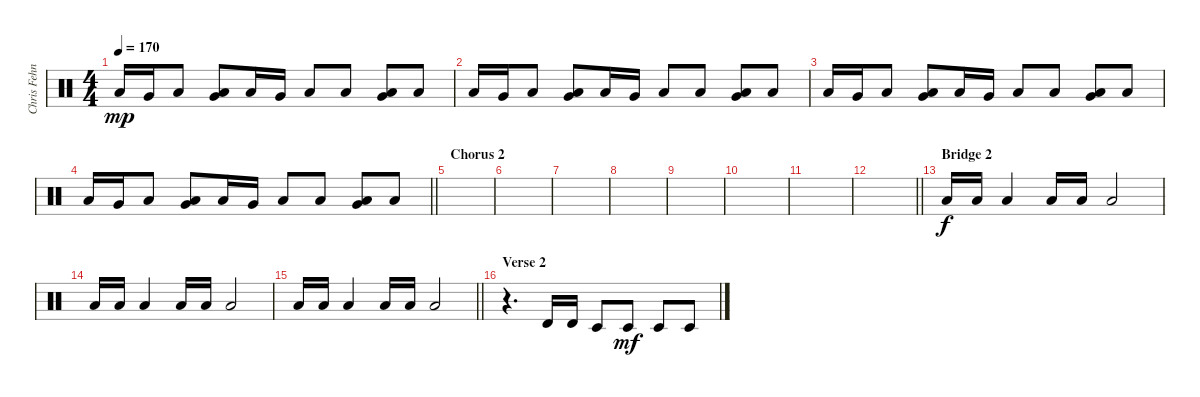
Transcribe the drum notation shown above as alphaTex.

\track ("Chris Fehn" "Chris Fehn") {instrument percussion}
\staff {score}
\articulation defaults
\ts (4 4)
\tempo 170
\clef neutral
\ks c "Low Floor Tom (hit)".16{dy mp} "Very Low Tom (hit)".16 "Low Floor Tom (hit)".8
("Very Low Tom (hit)" "Low Floor Tom (hit)").8 "Low Floor Tom (hit)".16 "Very Low Tom (hit)".16 "Low Floor Tom (hit)".8 "Low Floor Tom (hit)".8 ("Very Low Tom (hit)" "Low Floor Tom (hit)").8 "Low Floor Tom (hit)".8 |
"Low Floor Tom (hit)".16 "Very Low Tom (hit)".16 "Low Floor Tom (hit)".8 ("Very Low Tom (hit)" "Low Floor Tom (hit)").8 "Low Floor Tom (hit)".16 "Very Low Tom (hit)".16 "Low Floor Tom (hit)".8 "Low Floor Tom (hit)".8 ("Very Low Tom (hit)" "Low Floor Tom (hit)").8 "Low Floor Tom (hit)".8 |
"Low Floor Tom (hit)".16 "Very Low Tom (hit)".16 "Low Floor Tom (hit)".8 ("Very Low Tom (hit)" "Low Floor Tom (hit)").8 "Low Floor Tom (hit)".16 "Very Low Tom (hit)".16 "Low Floor Tom (hit)".8 "Low Floor Tom (hit)".8 ("Very Low Tom (hit)" "Low Floor Tom (hit)").8 "Low Floor Tom (hit)".8 |
\barLineRight lightlight "Low Floor Tom (hit)".16 "Very Low Tom (hit)".16 "Low Floor Tom (hit)".8
("Very Low Tom (hit)" "Low Floor Tom (hit)").8 "Low Floor Tom (hit)".16 "Very Low Tom (hit)".16 "Low Floor Tom (hit)".8 "Low Floor Tom (hit)".8 ("Very Low Tom (hit)" "Low Floor Tom (hit)").8 "Low Floor Tom (hit)".8 |
\section ("" "Chorus 2")
|
|
|
|
|
|
|
\barLineRight lightlight
|
\section ("" "Bridge 2")
"Low Floor Tom (hit)".16{dy f} "Low Floor Tom (hit)".16 "Low Floor Tom (hit)".4 "Low Floor Tom (hit)".16 "Low Floor Tom (hit)".16 "Low Floor Tom (hit)".2 |
"Low Floor Tom (hit)".16 "Low Floor Tom (hit)".16 "Low Floor Tom (hit)".4 "Low Floor Tom (hit)".16 "Low Floor Tom (hit)".16 "Low Floor Tom (hit)".2 |
\barLineRight lightlight "Low Floor Tom (hit)".16 "Low Floor Tom (hit)".16 "Low Floor Tom (hit)".4 "Low Floor Tom (hit)".16 "Low Floor Tom (hit)".16 "Low Floor Tom (hit)".2
|
\section ("" "Verse 2")
r.4{d} "Timbale high (hit)".16 "Timbale high (hit)".16 "Timbale low (hit)".8 "Timbale low (hit)".8{dy mf} "Timbale low (hit)".8 "Timbale low (hit)".8
